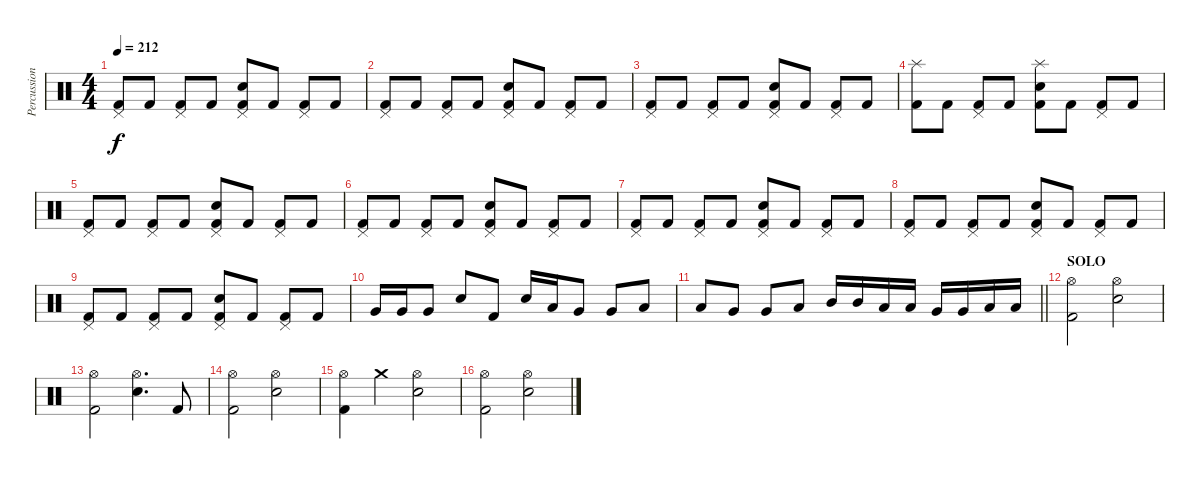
\track ("Percussions" "Percussion") {instrument percussion}
\staff {score}
\articulation defaults
\ts (4 4)
\tempo 212
\clef neutral
\ks c
("Pedal Hi-Hat (hit)" "Kick (hit) 2").8{dy f} "Kick (hit) 2".8 ("Pedal Hi-Hat (hit)" "Kick (hit) 2").8 "Kick (hit) 2".8 ("Pedal Hi-Hat (hit)" "Snare (hit) 2" "Kick (hit) 2").8 "Kick (hit) 2".8 ("Pedal Hi-Hat (hit)" "Kick (hit) 2").8 "Kick (hit) 2".8 |
("Pedal Hi-Hat (hit)" "Kick (hit) 2").8 "Kick (hit) 2".8 ("Pedal Hi-Hat (hit)" "Kick (hit) 2").8 "Kick (hit) 2".8 ("Pedal Hi-Hat (hit)" "Snare (hit) 2" "Kick (hit) 2").8 "Kick (hit) 2".8 ("Pedal Hi-Hat (hit)" "Kick (hit) 2").8 "Kick (hit) 2".8 |
("Pedal Hi-Hat (hit)" "Kick (hit) 2").8 "Kick (hit) 2".8 ("Pedal Hi-Hat (hit)" "Kick (hit) 2").8 "Kick (hit) 2".8 ("Pedal Hi-Hat (hit)" "Snare (hit) 2" "Kick (hit) 2").8 "Kick (hit) 2".8 ("Pedal Hi-Hat (hit)" "Kick (hit) 2").8 "Kick (hit) 2".8 |
("Splash (hit)" "Kick (hit) 2").8 "Kick (hit) 2".8 ("Pedal Hi-Hat (hit)" "Kick (hit) 2").8 "Kick (hit) 2".8 ("Splash (hit)" "Snare (hit) 2" "Kick (hit) 2").8 "Kick (hit) 2".8 ("Pedal Hi-Hat (hit)" "Kick (hit) 2").8 "Kick (hit) 2".8 |
("Pedal Hi-Hat (hit)" "Kick (hit) 2").8 "Kick (hit) 2".8 ("Pedal Hi-Hat (hit)" "Kick (hit) 2").8 "Kick (hit) 2".8 ("Pedal Hi-Hat (hit)" "Snare (hit) 2" "Kick (hit) 2").8 "Kick (hit) 2".8 ("Pedal Hi-Hat (hit)" "Kick (hit) 2").8 "Kick (hit) 2".8 |
("Pedal Hi-Hat (hit)" "Kick (hit) 2").8 "Kick (hit) 2".8 ("Pedal Hi-Hat (hit)" "Kick (hit) 2").8 "Kick (hit) 2".8 ("Pedal Hi-Hat (hit)" "Snare (hit) 2" "Kick (hit) 2").8 "Kick (hit) 2".8 ("Pedal Hi-Hat (hit)" "Kick (hit) 2").8 "Kick (hit) 2".8 |
("Pedal Hi-Hat (hit)" "Kick (hit) 2").8 "Kick (hit) 2".8 ("Pedal Hi-Hat (hit)" "Kick (hit) 2").8 "Kick (hit) 2".8 ("Pedal Hi-Hat (hit)" "Snare (hit) 2" "Kick (hit) 2").8 "Kick (hit) 2".8 ("Pedal Hi-Hat (hit)" "Kick (hit) 2").8 "Kick (hit) 2".8 |
("Pedal Hi-Hat (hit)" "Kick (hit) 2").8 "Kick (hit) 2".8 ("Pedal Hi-Hat (hit)" "Kick (hit) 2").8 "Kick (hit) 2".8 ("Pedal Hi-Hat (hit)" "Snare (hit) 2" "Kick (hit) 2").8 "Kick (hit) 2".8 ("Pedal Hi-Hat (hit)" "Kick (hit) 2").8 "Kick (hit) 2".8 |
("Pedal Hi-Hat (hit)" "Kick (hit) 2").8 "Kick (hit) 2".8 ("Pedal Hi-Hat (hit)" "Kick (hit) 2").8 "Kick (hit) 2".8 ("Pedal Hi-Hat (hit)" "Snare (hit) 2" "Kick (hit) 2").8 "Kick (hit) 2".8 ("Pedal Hi-Hat (hit)" "Kick (hit) 2").8 "Kick (hit) 2".8 |
"Very Low Tom (hit)".16 "Very Low Tom (hit)".16 "Very Low Tom (hit)".8 "Snare (hit) 2".8 "Kick (hit) 2".8 "Snare (hit) 2".16 "Low Tom (hit)".16 "Very Low Tom (hit)".8 "Very Low Tom (hit)".8 "Low Floor Tom (hit)".8 |
\barLineRight lightlight "Low Tom (hit)".8 "Very Low Tom (hit)".8 "Very Low Tom (hit)".8 "Low Floor Tom (hit)".8 "Mid Tom (hit)".16 "Mid Tom (hit)".16 "Low Tom (hit)".16 "Low Tom (hit)".16 "Very Low Tom (hit)".16 "Very Low Tom (hit)".16 "Low Floor Tom (hit)".16 "Low Floor Tom (hit)".16
|
\section ("" "SOLO")
("Hi-Hat (open)" "Kick (hit) 2").2 ("Hi-Hat (open)" "Snare (hit) 2").2 |
("Hi-Hat (open)" "Kick (hit) 2").2 ("Hi-Hat (open)" "Snare (hit) 2").4{d} "Kick (hit) 2".8 |
("Hi-Hat (open)" "Kick (hit) 2").2 ("Hi-Hat (open)" "Snare (hit) 2").2 |
("Hi-Hat (open)" "Kick (hit) 2").4 "Crash medium (hit)".4 ("Hi-Hat (open)" "Snare (hit) 2").2 |
("Hi-Hat (open)" "Kick (hit) 2").2 ("Hi-Hat (open)" "Snare (hit) 2").2
